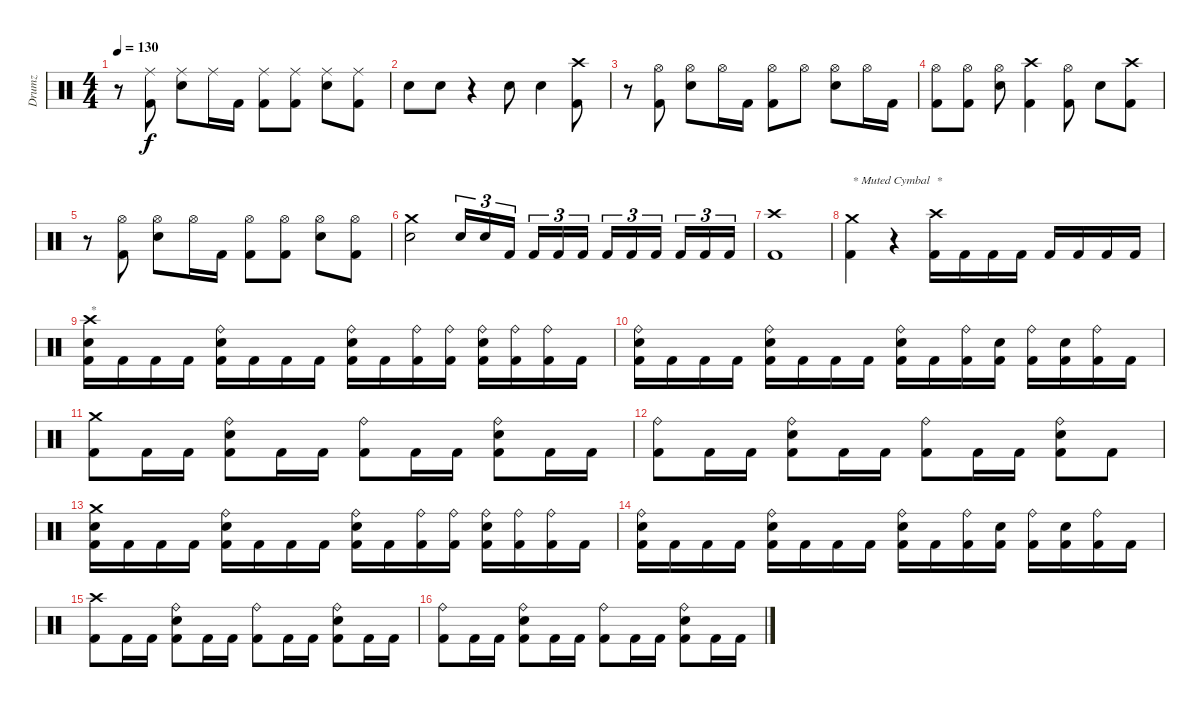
\track ("Drumz" "Drumz") {instrument percussion}
\staff {score}
\articulation defaults
\ts (4 4)
\tempo 130
\clef neutral
\ks c
r.8{dy f} ("Kick (hit) 2" "Ride (middle)").8 ("Snare (hit) 2" "Ride (middle)").8 "Ride (middle)".16 "Kick (hit) 2".16 ("Kick (hit) 2" "Ride (middle)").8 ("Kick (hit) 2" "Ride (middle)").8 ("Snare (hit) 2" "Ride (middle)").8 ("Kick (hit) 2" "Ride (middle)").8 |
"Snare (hit) 2".8 "Snare (hit) 2".8 r.4 "Snare (hit) 2".8 "Snare (hit) 2".4 ("Kick (hit) 2" "Crash high (hit)").8 |
r.8 ("Kick (hit) 2" "Hi-Hat (open)").8 ("Snare (hit) 2" "Hi-Hat (open)").8 "Hi-Hat (open)".16 "Kick (hit) 2".16 ("Kick (hit) 2" "Hi-Hat (open)").8 "Hi-Hat (open)".8 ("Snare (hit) 2" "Hi-Hat (open)").8 "Hi-Hat (open)".16 "Kick (hit) 2".16 |
("Kick (hit) 2" "Hi-Hat (open)").8 ("Kick (hit) 2" "Hi-Hat (open)").8 ("Snare (hit) 2" "Hi-Hat (open)").8 ("Kick (hit) 2" "Crash high (hit)").4 ("Kick (hit) 2" "Hi-Hat (open)").8 "Snare (hit) 2".8 ("Kick (hit) 2" "Crash high (hit)").8 |
r.8 ("Kick (hit) 2" "Hi-Hat (open)").8 ("Snare (hit) 2" "Hi-Hat (open)").8 "Hi-Hat (open)".16 "Kick (hit) 2".16 ("Kick (hit) 2" "Hi-Hat (open)").8 ("Kick (hit) 2" "Hi-Hat (open)").8 ("Snare (hit) 2" "Hi-Hat (open)").8 ("Kick (hit) 2" "Hi-Hat (open)").8 |
("Snare (hit) 2" "Crash medium (hit)").2 "Snare (hit) 2".16{tu (3 2)} "Snare (hit) 2".16{tu (3 2)} "Kick (hit) 2".16{tu (3 2)} "Kick (hit) 2".16{tu (3 2)} "Kick (hit) 2".16{tu (3 2)} "Kick (hit) 2".16{tu (3 2)} "Kick (hit) 2".16{tu (3 2)} "Kick (hit) 2".16{tu (3 2)} "Kick (hit) 2".16{tu (3 2)} "Kick (hit) 2".16{tu (3 2)} "Kick (hit) 2".16{tu (3 2)} "Kick (hit) 2".16{tu (3 2)} |
("Kick (hit) 2" "Crash high (hit)").1 |
("Kick (hit) 2" "Crash medium (hit)").4{txt "* Muted Cymbal"} r.4 ("Kick (hit) 2" "Crash high (hit)").16{txt "*"} "Kick (hit) 2".16 "Kick (hit) 2".16 "Kick (hit) 2".16 "Kick (hit) 2".16 "Kick (hit) 2".16 "Kick (hit) 2".16 "Kick (hit) 2".16 |
("Kick (hit) 2" "Snare (hit) 2" "Crash high (hit)").16{txt "*"} "Kick (hit) 2".16 "Kick (hit) 2".16 "Kick (hit) 2".16 ("Kick (hit) 2" "Snare (hit) 2" "Ride (bell)").16 "Kick (hit) 2".16 "Kick (hit) 2".16 "Kick (hit) 2".16 ("Kick (hit) 2" "Snare (hit) 2" "Ride (bell)").16 "Kick (hit) 2".16 ("Kick (hit) 2" "Ride (bell)").16 ("Kick (hit) 2" "Ride (bell)").16 ("Kick (hit) 2" "Snare (hit) 2" "Ride (bell)").16 ("Kick (hit) 2" "Ride (bell)").16 ("Kick (hit) 2" "Ride (bell)").16 "Kick (hit) 2".16 |
("Kick (hit) 2" "Snare (hit) 2" "Ride (bell)").16 "Kick (hit) 2".16 "Kick (hit) 2".16 "Kick (hit) 2".16 ("Kick (hit) 2" "Snare (hit) 2" "Ride (bell)").16 "Kick (hit) 2".16 "Kick (hit) 2".16 "Kick (hit) 2".16 ("Kick (hit) 2" "Snare (hit) 2" "Ride (bell)").16 "Kick (hit) 2".16 ("Kick (hit) 2" "Ride (bell)").16 ("Kick (hit) 2" "Snare (hit) 2").16 ("Kick (hit) 2" "Ride (bell)").16 ("Kick (hit) 2" "Snare (hit) 2").16 ("Kick (hit) 2" "Ride (bell)").16 "Kick (hit) 2".16 |
("Kick (hit) 2" "Crash medium (hit)").8 "Kick (hit) 2".16 "Kick (hit) 2".16 ("Kick (hit) 2" "Snare (hit) 2" "Ride (bell)").8 "Kick (hit) 2".16 "Kick (hit) 2".16 ("Kick (hit) 2" "Ride (bell)").8 "Kick (hit) 2".16 "Kick (hit) 2".16 ("Kick (hit) 2" "Snare (hit) 2" "Ride (bell)").8 "Kick (hit) 2".16 "Kick (hit) 2".16 |
("Kick (hit) 2" "Ride (bell)").8 "Kick (hit) 2".16 "Kick (hit) 2".16 ("Kick (hit) 2" "Snare (hit) 2" "Ride (bell)").8 "Kick (hit) 2".16 "Kick (hit) 2".16 ("Kick (hit) 2" "Ride (bell)").8 "Kick (hit) 2".16 "Kick (hit) 2".16 ("Kick (hit) 2" "Snare (hit) 2" "Ride (bell)").8 "Kick (hit) 2".8 |
("Kick (hit) 2" "Snare (hit) 2" "Crash medium (hit)").16 "Kick (hit) 2".16 "Kick (hit) 2".16 "Kick (hit) 2".16 ("Kick (hit) 2" "Snare (hit) 2" "Ride (bell)").16 "Kick (hit) 2".16 "Kick (hit) 2".16 "Kick (hit) 2".16 ("Kick (hit) 2" "Snare (hit) 2" "Ride (bell)").16 "Kick (hit) 2".16 ("Kick (hit) 2" "Ride (bell)").16 ("Kick (hit) 2" "Ride (bell)").16 ("Kick (hit) 2" "Snare (hit) 2" "Ride (bell)").16 ("Kick (hit) 2" "Ride (bell)").16 ("Kick (hit) 2" "Ride (bell)").16 "Kick (hit) 2".16 |
("Kick (hit) 2" "Snare (hit) 2" "Ride (bell)").16 "Kick (hit) 2".16 "Kick (hit) 2".16 "Kick (hit) 2".16 ("Kick (hit) 2" "Snare (hit) 2" "Ride (bell)").16 "Kick (hit) 2".16 "Kick (hit) 2".16 "Kick (hit) 2".16 ("Kick (hit) 2" "Snare (hit) 2" "Ride (bell)").16 "Kick (hit) 2".16 ("Kick (hit) 2" "Ride (bell)").16 ("Kick (hit) 2" "Snare (hit) 2").16 ("Kick (hit) 2" "Ride (bell)").16 ("Kick (hit) 2" "Snare (hit) 2").16 ("Kick (hit) 2" "Ride (bell)").16 "Kick (hit) 2".16 |
("Kick (hit) 2" "Crash high (hit)").8 "Kick (hit) 2".16 "Kick (hit) 2".16 ("Kick (hit) 2" "Snare (hit) 2" "Ride (bell)").8 "Kick (hit) 2".16 "Kick (hit) 2".16 ("Kick (hit) 2" "Ride (bell)").8 "Kick (hit) 2".16 "Kick (hit) 2".16 ("Kick (hit) 2" "Snare (hit) 2" "Ride (bell)").8 "Kick (hit) 2".16 "Kick (hit) 2".16 |
("Kick (hit) 2" "Ride (bell)").8 "Kick (hit) 2".16 "Kick (hit) 2".16 ("Kick (hit) 2" "Snare (hit) 2" "Ride (bell)").8 "Kick (hit) 2".16 "Kick (hit) 2".16 ("Kick (hit) 2" "Ride (bell)").8 "Kick (hit) 2".16 "Kick (hit) 2".16 ("Kick (hit) 2" "Snare (hit) 2" "Ride (bell)").8 "Kick (hit) 2".16 "Kick (hit) 2".16
